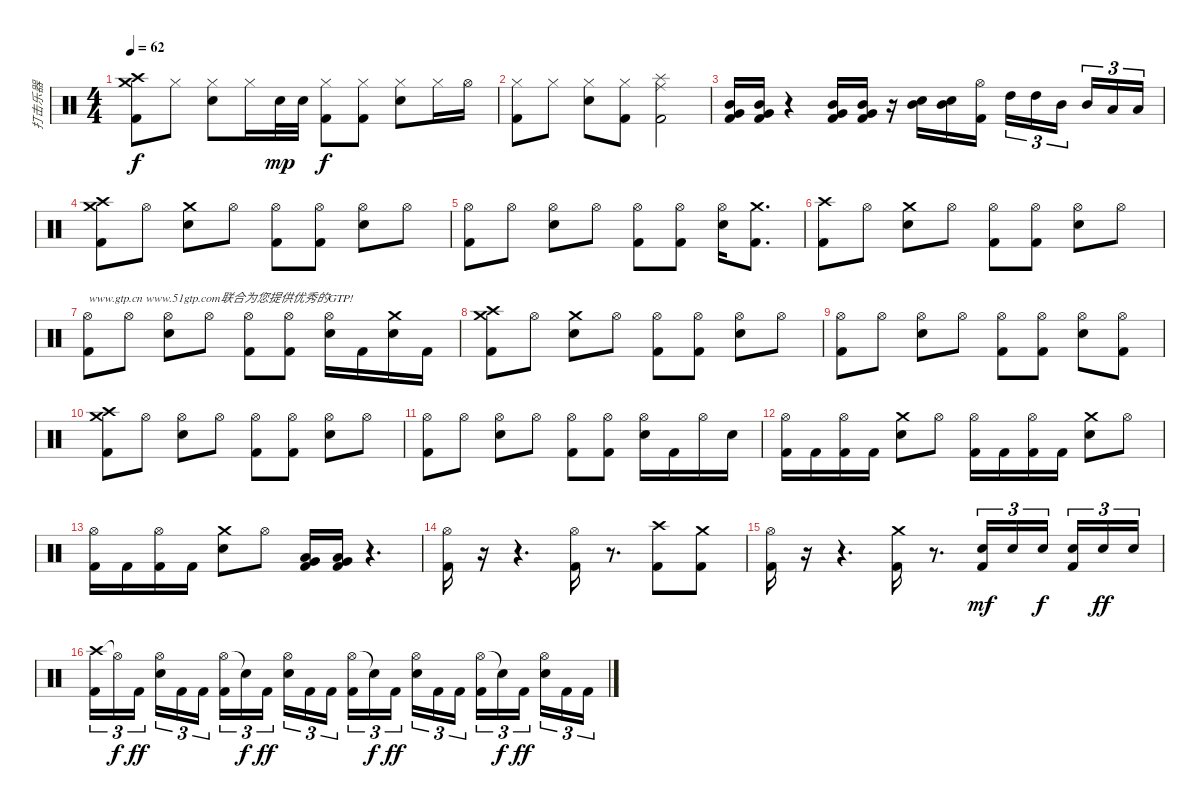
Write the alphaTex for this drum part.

\track ("打击乐器" "打击乐器") {instrument percussion}
\staff {score}
\articulation defaults
\ts (4 4)
\tempo 62
\clef neutral
\ks c
("Crash high (hit)" "Crash medium (hit)" "Kick (hit) 2").8{dy f} "Hi-Hat (closed)".8 ("Hi-Hat (closed)" "Electric Snare (hit)").8 "Hi-Hat (closed)".16 "Electric Snare (hit)".32{dy mp} "Electric Snare (hit)".32 ("Hi-Hat (closed)" "Kick (hit) 2").8{dy f} ("Hi-Hat (closed)" "Kick (hit) 2").8 ("Hi-Hat (closed)" "Electric Snare (hit)").8 "Hi-Hat (closed)".16 "Hi-Hat (open)".16 |
("Hi-Hat (closed)" "Kick (hit) 2").8 "Hi-Hat (closed)".8 ("Hi-Hat (closed)" "Electric Snare (hit)").8 ("Hi-Hat (closed)" "Kick (hit) 2").8 ("Ride (middle)" "Splash (hit)" "Kick (hit) 2").2 |
("Very Low Tom (hit)" "Mid Tom (hit)" "Kick (hit) 2").16 ("Very Low Tom (hit)" "Mid Tom (hit)" "Kick (hit) 2").16 r.4 ("Very Low Tom (hit)" "Mid Tom (hit)" "Kick (hit) 2").16 ("Very Low Tom (hit)" "Mid Tom (hit)" "Kick (hit) 2").16 r.16 ("Mid Tom (hit)" "Electric Snare (hit)").16 ("Mid Tom (hit)" "Electric Snare (hit)").16 ("Hi-Hat (open)" "Kick (hit) 2").16 "High Tom (hit)".16{tu (3 2)} "High Tom (hit)".16{tu (3 2)} "Mid Tom (hit)".16{tu (3 2) beam splitsecondary} "Mid Tom (hit)".16{tu (3 2)} "Low Tom (hit)".16{tu (3 2)} "Low Tom (hit)".16{tu (3 2)} |
("Crash high (hit)" "Crash medium (hit)" "Kick (hit) 2").8 "Hi-Hat (open)".8 ("Crash medium (hit)" "Electric Snare (hit)").8 "Hi-Hat (open)".8 ("Hi-Hat (open)" "Kick (hit) 2").8 ("Hi-Hat (open)" "Kick (hit) 2").8 ("Hi-Hat (open)" "Electric Snare (hit)").8 "Hi-Hat (open)".8 |
("Hi-Hat (open)" "Kick (hit) 2").8 "Hi-Hat (open)".8 ("Hi-Hat (open)" "Electric Snare (hit)").8 "Hi-Hat (open)".8 ("Hi-Hat (open)" "Kick (hit) 2").8 ("Hi-Hat (open)" "Kick (hit) 2").8 ("Hi-Hat (open)" "Electric Snare (hit)").16 ("Crash medium (hit)" "Kick (hit) 2").8{d} |
("Crash high (hit)" "Kick (hit) 2").8 "Hi-Hat (open)".8 ("Crash medium (hit)" "Electric Snare (hit)").8 "Hi-Hat (open)".8 ("Hi-Hat (open)" "Kick (hit) 2").8 ("Hi-Hat (open)" "Kick (hit) 2").8 ("Hi-Hat (open)" "Electric Snare (hit)").8 "Hi-Hat (open)".8 |
("Hi-Hat (open)" "Kick (hit) 2").8{txt "www.gtp.cn www.51gtp.com联合为您提供优秀的GTP!"} "Hi-Hat (open)".8 ("Hi-Hat (open)" "Electric Snare (hit)").8 "Hi-Hat (open)".8 ("Hi-Hat (open)" "Kick (hit) 2").8 ("Hi-Hat (open)" "Kick (hit) 2").8 ("Hi-Hat (open)" "Electric Snare (hit)").16 "Kick (hit) 2".16 ("Crash medium (hit)" "Electric Snare (hit)").16 "Kick (hit) 2".16 |
("Crash high (hit)" "Crash medium (hit)" "Kick (hit) 2").8 "Hi-Hat (open)".8 ("Crash medium (hit)" "Electric Snare (hit)").8 "Hi-Hat (open)".8 ("Hi-Hat (open)" "Kick (hit) 2").8 ("Hi-Hat (open)" "Kick (hit) 2").8 ("Hi-Hat (open)" "Electric Snare (hit)").8 "Hi-Hat (open)".8 |
("Hi-Hat (open)" "Kick (hit) 2").8 "Hi-Hat (open)".8 ("Hi-Hat (open)" "Electric Snare (hit)").8 "Hi-Hat (open)".8 ("Hi-Hat (open)" "Kick (hit) 2").8 ("Hi-Hat (open)" "Kick (hit) 2").8 ("Hi-Hat (open)" "Electric Snare (hit)").8 ("Hi-Hat (open)" "Kick (hit) 2").8 |
("Crash high (hit)" "Crash medium (hit)" "Kick (hit) 2").8 "Hi-Hat (open)".8 ("Hi-Hat (open)" "Electric Snare (hit)").8 "Hi-Hat (open)".8 ("Hi-Hat (open)" "Kick (hit) 2").8 ("Hi-Hat (open)" "Kick (hit) 2").8 ("Hi-Hat (open)" "Electric Snare (hit)").8 "Hi-Hat (open)".8 |
("Hi-Hat (open)" "Kick (hit) 2").8 "Hi-Hat (open)".8 ("Hi-Hat (open)" "Electric Snare (hit)").8 "Hi-Hat (open)".8 ("Hi-Hat (open)" "Kick (hit) 2").8 ("Hi-Hat (open)" "Kick (hit) 2").8 ("Hi-Hat (open)" "Electric Snare (hit)").16 "Kick (hit) 2".16 "Hi-Hat (open)".16 "Electric Snare (hit)".16 |
("Hi-Hat (open)" "Kick (hit) 2").16 "Kick (hit) 2".16 ("Hi-Hat (open)" "Kick (hit) 2").16 "Kick (hit) 2".16 ("Crash medium (hit)" "Electric Snare (hit)").8 "Hi-Hat (open)".8 ("Hi-Hat (open)" "Kick (hit) 2").16 "Kick (hit) 2".16 ("Hi-Hat (open)" "Kick (hit) 2").16 "Kick (hit) 2".16 ("Crash medium (hit)" "Electric Snare (hit)").8 "Hi-Hat (open)".8 |
("Hi-Hat (open)" "Kick (hit) 2").16 "Kick (hit) 2".16 ("Hi-Hat (open)" "Kick (hit) 2").16 "Kick (hit) 2".16 ("Crash medium (hit)" "Electric Snare (hit)").8 "Hi-Hat (open)".8 ("Low Tom (hit)" "Very Low Tom (hit)" "Kick (hit) 2").16 ("Very Low Tom (hit)" "Low Tom (hit)" "Kick (hit) 2").16 r.4{d} |
("Hi-Hat (open)" "Kick (hit) 2").16 r.16 r.4{d} ("Hi-Hat (open)" "Kick (hit) 2").16 r.8{d} ("Crash high (hit)" "Kick (hit) 2").8 ("Crash medium (hit)" "Kick (hit) 2").8 |
("Hi-Hat (open)" "Kick (hit) 2").16 r.16 r.4{d} ("Crash medium (hit)" "Kick (hit) 2").16 r.8{d} ("Electric Snare (hit)" "Kick (hit) 2").16{tu (3 2) dy mf} "Electric Snare (hit)".16{tu (3 2)} "Electric Snare (hit)".16{tu (3 2) dy f beam splitsecondary} ("Electric Snare (hit)" "Kick (hit) 2").16{tu (3 2)} "Electric Snare (hit)".16{tu (3 2) dy ff} "Electric Snare (hit)".16{tu (3 2)} |
("Crash high (hit)" "Kick (hit) 2").16{tu (3 2)} "Hi-Hat (open)"{t}.16{tu (3 2) dy f} "Kick (hit) 2".16{tu (3 2) dy ff beam splitsecondary} ("Hi-Hat (open)" "Electric Snare (hit)").16{tu (3 2)} "Kick (hit) 2".16{tu (3 2)} "Kick (hit) 2".16{tu (3 2)} ("Hi-Hat (open)" "Kick (hit) 2").16{tu (3 2)} "Snare (hit)"{t}.16{tu (3 2) dy f} "Kick (hit) 2".16{tu (3 2) dy ff beam splitsecondary} ("Hi-Hat (open)" "Electric Snare (hit)").16{tu (3 2)} "Kick (hit) 2".16{tu (3 2)} "Kick (hit) 2".16{tu (3 2)} ("Hi-Hat (open)" "Kick (hit) 2").16{tu (3 2)} "Snare (hit)"{t}.16{tu (3 2) dy f} "Kick (hit) 2".16{tu (3 2) dy ff beam splitsecondary} ("Hi-Hat (open)" "Electric Snare (hit)").16{tu (3 2)} "Kick (hit) 2".16{tu (3 2)} "Kick (hit) 2".16{tu (3 2)} ("Hi-Hat (open)" "Kick (hit) 2").16{tu (3 2)} "Snare (hit)"{t}.16{tu (3 2) dy f} "Kick (hit) 2".16{tu (3 2) dy ff beam splitsecondary} ("Hi-Hat (open)" "Electric Snare (hit)").16{tu (3 2)} "Kick (hit) 2".16{tu (3 2)} "Kick (hit) 2".16{tu (3 2)}
